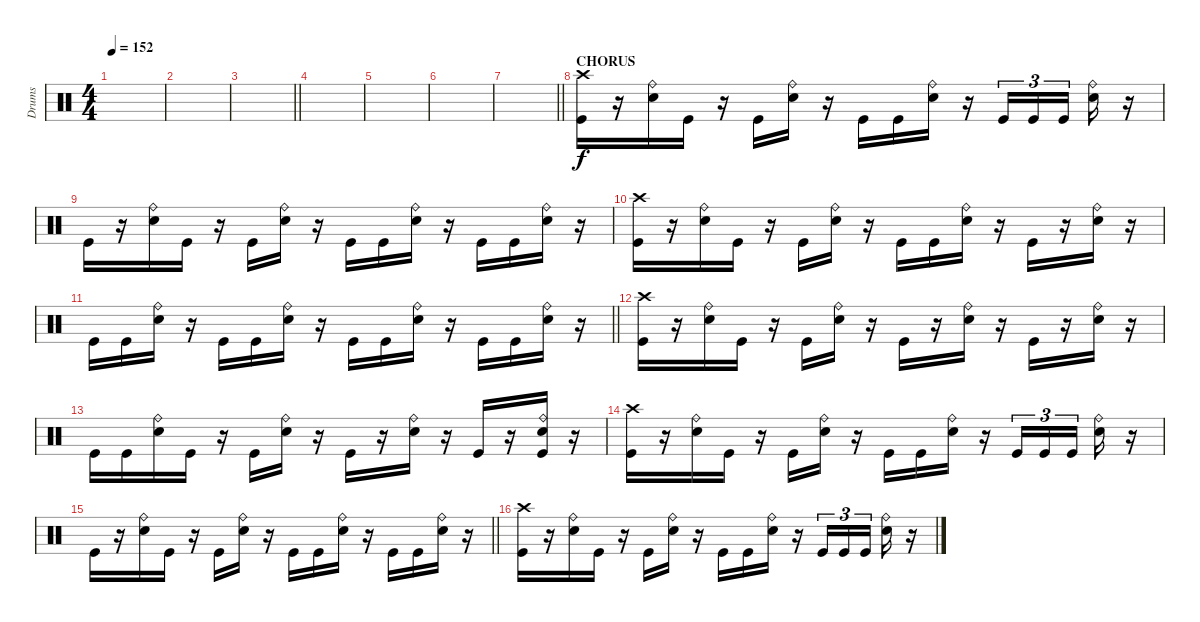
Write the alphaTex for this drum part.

\track ("Drums" "Drums") {instrument percussion}
\staff
\articulation defaults
\ts (4 4)
\tempo 152
\clef neutral
\ks c
|
|
\barLineRight lightlight
|
|
|
|
\barLineRight lightlight
|
\section ("" "CHORUS")
("Crash high (hit)" "Kick (hit)").16 r.16 ("Ride (bell)" "Electric Snare (hit)").16 "Kick (hit)".16 r.16 "Kick (hit)".16 ("Ride (bell)" "Electric Snare (hit)").16 r.16 "Kick (hit)".16 "Kick (hit)".16 ("Ride (bell)" "Electric Snare (hit)").16 r.16 "Kick (hit)".16{tu (3 2)} "Kick (hit)".16{tu (3 2)} "Kick (hit)".16{tu (3 2) beam splitsecondary} ("Ride (bell)" "Electric Snare (hit)").16 r.16 |
"Kick (hit)".16 r.16 ("Ride (bell)" "Electric Snare (hit)").16 "Kick (hit)".16 r.16 "Kick (hit)".16 ("Ride (bell)" "Electric Snare (hit)").16 r.16 "Kick (hit)".16 "Kick (hit)".16 ("Ride (bell)" "Electric Snare (hit)").16 r.16 "Kick (hit)".16 "Kick (hit)".16 ("Ride (bell)" "Electric Snare (hit)").16 r.16 |
("Crash high (hit)" "Kick (hit)").16 r.16 ("Ride (bell)" "Electric Snare (hit)").16 "Kick (hit)".16 r.16 "Kick (hit)".16 ("Ride (bell)" "Electric Snare (hit)").16 r.16 "Kick (hit)".16 "Kick (hit)".16 ("Ride (bell)" "Electric Snare (hit)").16 r.16 "Kick (hit)".16 r.16 ("Ride (bell)" "Electric Snare (hit)").16 r.16 |
\barLineRight lightlight "Kick (hit)".16 "Kick (hit)".16
("Ride (bell)" "Electric Snare (hit)").16 r.16 "Kick (hit)".16 "Kick (hit)".16 ("Ride (bell)" "Electric Snare (hit)").16 r.16 "Kick (hit)".16 "Kick (hit)".16 ("Ride (bell)" "Electric Snare (hit)").16 r.16 "Kick (hit)".16 "Kick (hit)".16 ("Ride (bell)" "Electric Snare (hit)").16 r.16 |
("Crash high (hit)" "Kick (hit)").16 r.16 ("Ride (bell)" "Electric Snare (hit)").16 "Kick (hit)".16 r.16 "Kick (hit)".16 ("Ride (bell)" "Electric Snare (hit)").16 r.16 "Kick (hit)".16 r.16 ("Ride (bell)" "Electric Snare (hit)").16 r.16 "Kick (hit)".16 r.16 ("Ride (bell)" "Electric Snare (hit)").16 r.16 |
"Kick (hit)".16 "Kick (hit)".16 ("Ride (bell)" "Electric Snare (hit)").16 "Kick (hit)".16 r.16 "Kick (hit)".16 ("Ride (bell)" "Electric Snare (hit)").16 r.16 "Kick (hit)".16 r.16 ("Ride (bell)" "Electric Snare (hit)").16 r.16 "Kick (hit)".16 r.16 ("Ride (bell)" "Electric Snare (hit)" "Kick (hit)").16 r.16 |
("Crash high (hit)" "Kick (hit)").16 r.16 ("Ride (bell)" "Electric Snare (hit)").16 "Kick (hit)".16 r.16 "Kick (hit)".16 ("Ride (bell)" "Electric Snare (hit)").16 r.16 "Kick (hit)".16 "Kick (hit)".16 ("Ride (bell)" "Electric Snare (hit)").16 r.16 "Kick (hit)".16{tu (3 2)} "Kick (hit)".16{tu (3 2)} "Kick (hit)".16{tu (3 2) beam splitsecondary} ("Ride (bell)" "Electric Snare (hit)").16 r.16 |
\barLineRight lightlight "Kick (hit)".16
r.16 ("Ride (bell)" "Electric Snare (hit)").16 "Kick (hit)".16 r.16 "Kick (hit)".16 ("Ride (bell)" "Electric Snare (hit)").16 r.16 "Kick (hit)".16 "Kick (hit)".16 ("Ride (bell)" "Electric Snare (hit)").16 r.16 "Kick (hit)".16 "Kick (hit)".16 ("Ride (bell)" "Electric Snare (hit)").16 r.16 |
("Crash high (hit)" "Kick (hit)").16 r.16 ("Ride (bell)" "Electric Snare (hit)").16 "Kick (hit)".16 r.16 "Kick (hit)".16 ("Ride (bell)" "Electric Snare (hit)").16 r.16 "Kick (hit)".16 "Kick (hit)".16 ("Ride (bell)" "Electric Snare (hit)").16 r.16 "Kick (hit)".16{tu (3 2)} "Kick (hit)".16{tu (3 2)} "Kick (hit)".16{tu (3 2) beam splitsecondary} ("Ride (bell)" "Electric Snare (hit)").16 r.16
